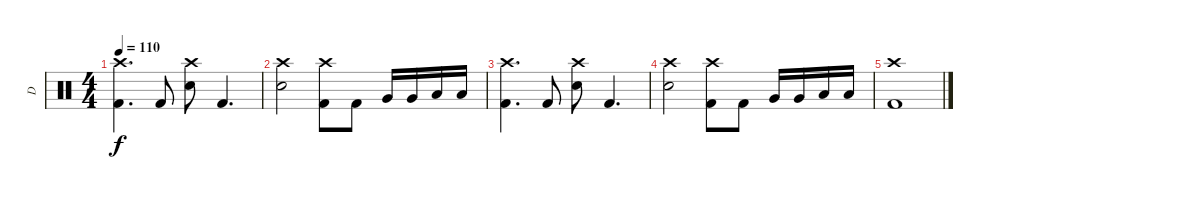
\track ("D" "D") {instrument percussion}
\staff {score}
\articulation defaults
\ts (4 4)
\tempo 110
\clef neutral
\ks c
("Crash high (hit)" "Kick (hit) 2").4{d dy f} "Kick (hit) 2".8 ("Crash high (hit)" "Electric Snare (hit)").8 "Kick (hit) 2".4{d} |
("Crash high (hit)" "Electric Snare (hit)").2 ("Crash high (hit)" "Kick (hit) 2").8 "Kick (hit) 2".8 "Very Low Tom (hit)".16 "Very Low Tom (hit)".16 "Low Floor Tom (hit)".16 "Low Floor Tom (hit)".16 |
("Crash high (hit)" "Kick (hit) 2").4{d} "Kick (hit) 2".8 ("Crash high (hit)" "Electric Snare (hit)").8 "Kick (hit) 2".4{d} |
("Crash high (hit)" "Electric Snare (hit)").2 ("Crash high (hit)" "Kick (hit) 2").8 "Kick (hit) 2".8 "Very Low Tom (hit)".16 "Very Low Tom (hit)".16 "Low Floor Tom (hit)".16 "Low Floor Tom (hit)".16 |
("Crash high (hit)" "Kick (hit) 2").1
